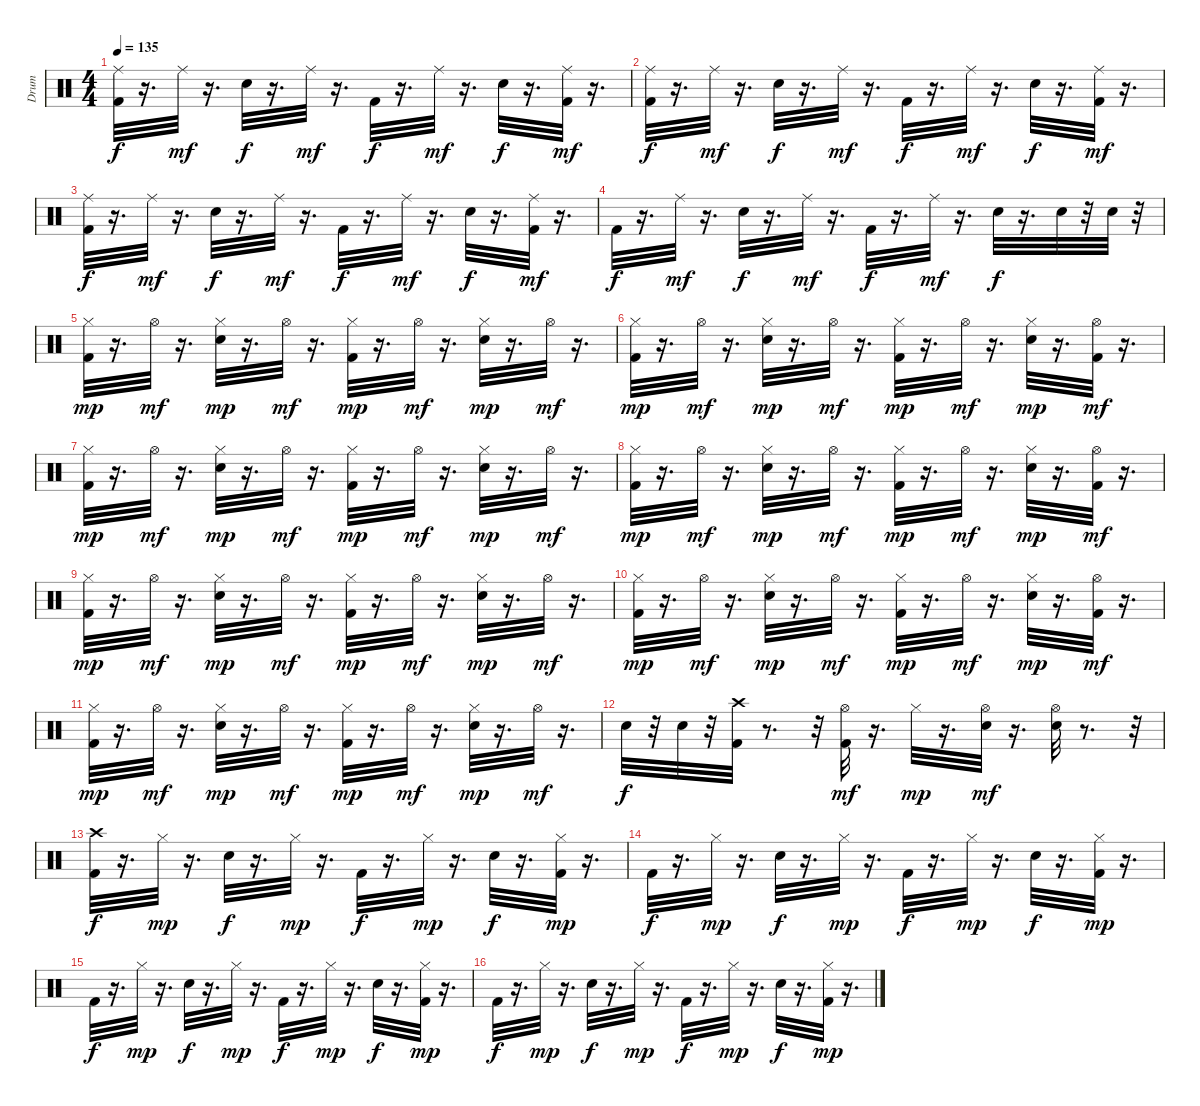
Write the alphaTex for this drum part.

\track ("Drum" "Drum") {instrument percussion}
\staff {score}
\articulation defaults
\ts (4 4)
\tempo 135
\clef neutral
\ks c
("Ride (middle)" "Kick (hit) 2").32{dy f} r.16{d} "Ride (middle)".32{dy mf} r.16{d} "Electric Snare (hit)".32{dy f} r.16{d} "Ride (middle)".32{dy mf} r.16{d} "Kick (hit) 2".32{dy f} r.16{d} "Ride (middle)".32{dy mf} r.16{d} "Electric Snare (hit)".32{dy f} r.16{d} ("Ride (middle)" "Kick (hit) 2").32{dy mf} r.16{d} |
("Ride (middle)" "Kick (hit) 2").32{dy f} r.16{d} "Ride (middle)".32{dy mf} r.16{d} "Electric Snare (hit)".32{dy f} r.16{d} "Ride (middle)".32{dy mf} r.16{d} "Kick (hit) 2".32{dy f} r.16{d} "Ride (middle)".32{dy mf} r.16{d} "Electric Snare (hit)".32{dy f} r.16{d} ("Ride (middle)" "Kick (hit) 2").32{dy mf} r.16{d} |
("Ride (middle)" "Kick (hit) 2").32{dy f} r.16{d} "Ride (middle)".32{dy mf} r.16{d} "Electric Snare (hit)".32{dy f} r.16{d} "Ride (middle)".32{dy mf} r.16{d} "Kick (hit) 2".32{dy f} r.16{d} "Ride (middle)".32{dy mf} r.16{d} "Electric Snare (hit)".32{dy f} r.16{d} ("Ride (middle)" "Kick (hit) 2").32{dy mf} r.16{d} |
"Kick (hit) 2".32{dy f} r.16{d} "Ride (middle)".32{dy mf} r.16{d} "Electric Snare (hit)".32{dy f} r.16{d} "Ride (middle)".32{dy mf} r.16{d} "Kick (hit) 2".32{dy f} r.16{d} "Ride (middle)".32{dy mf} r.16{d} "Electric Snare (hit)".32{dy f} r.16{d} "Electric Snare (hit)".32 r.32 "Electric Snare (hit)".32 r.32 |
("Hi-Hat (closed)" "Kick (hit) 2").32{dy mp} r.16{d} "Hi-Hat (open)".32{dy mf} r.16{d} ("Hi-Hat (closed)" "Electric Snare (hit)").32{dy mp} r.16{d} "Hi-Hat (open)".32{dy mf} r.16{d} ("Hi-Hat (closed)" "Kick (hit) 2").32{dy mp} r.16{d} "Hi-Hat (open)".32{dy mf} r.16{d} ("Hi-Hat (closed)" "Electric Snare (hit)").32{dy mp} r.16{d} "Hi-Hat (open)".32{dy mf} r.16{d} |
("Hi-Hat (closed)" "Kick (hit) 2").32{dy mp} r.16{d} "Hi-Hat (open)".32{dy mf} r.16{d} ("Hi-Hat (closed)" "Electric Snare (hit)").32{dy mp} r.16{d} "Hi-Hat (open)".32{dy mf} r.16{d} ("Hi-Hat (closed)" "Kick (hit) 2").32{dy mp} r.16{d} "Hi-Hat (open)".32{dy mf} r.16{d} ("Hi-Hat (closed)" "Electric Snare (hit)").32{dy mp} r.16{d} ("Hi-Hat (open)" "Kick (hit) 2").32{dy mf} r.16{d} |
("Hi-Hat (closed)" "Kick (hit) 2").32{dy mp} r.16{d} "Hi-Hat (open)".32{dy mf} r.16{d} ("Hi-Hat (closed)" "Electric Snare (hit)").32{dy mp} r.16{d} "Hi-Hat (open)".32{dy mf} r.16{d} ("Hi-Hat (closed)" "Kick (hit) 2").32{dy mp} r.16{d} "Hi-Hat (open)".32{dy mf} r.16{d} ("Hi-Hat (closed)" "Electric Snare (hit)").32{dy mp} r.16{d} "Hi-Hat (open)".32{dy mf} r.16{d} |
("Hi-Hat (closed)" "Kick (hit) 2").32{dy mp} r.16{d} "Hi-Hat (open)".32{dy mf} r.16{d} ("Hi-Hat (closed)" "Electric Snare (hit)").32{dy mp} r.16{d} "Hi-Hat (open)".32{dy mf} r.16{d} ("Hi-Hat (closed)" "Kick (hit) 2").32{dy mp} r.16{d} "Hi-Hat (open)".32{dy mf} r.16{d} ("Hi-Hat (closed)" "Electric Snare (hit)").32{dy mp} r.16{d} ("Hi-Hat (open)" "Kick (hit) 2").32{dy mf} r.16{d} |
("Hi-Hat (closed)" "Kick (hit) 2").32{dy mp} r.16{d} "Hi-Hat (open)".32{dy mf} r.16{d} ("Hi-Hat (closed)" "Electric Snare (hit)").32{dy mp} r.16{d} "Hi-Hat (open)".32{dy mf} r.16{d} ("Hi-Hat (closed)" "Kick (hit) 2").32{dy mp} r.16{d} "Hi-Hat (open)".32{dy mf} r.16{d} ("Hi-Hat (closed)" "Electric Snare (hit)").32{dy mp} r.16{d} "Hi-Hat (open)".32{dy mf} r.16{d} |
("Hi-Hat (closed)" "Kick (hit) 2").32{dy mp} r.16{d} "Hi-Hat (open)".32{dy mf} r.16{d} ("Hi-Hat (closed)" "Electric Snare (hit)").32{dy mp} r.16{d} "Hi-Hat (open)".32{dy mf} r.16{d} ("Hi-Hat (closed)" "Kick (hit) 2").32{dy mp} r.16{d} "Hi-Hat (open)".32{dy mf} r.16{d} ("Hi-Hat (closed)" "Electric Snare (hit)").32{dy mp} r.16{d} ("Hi-Hat (open)" "Kick (hit) 2").32{dy mf} r.16{d} |
("Hi-Hat (closed)" "Kick (hit) 2").32{dy mp} r.16{d} "Hi-Hat (open)".32{dy mf} r.16{d} ("Hi-Hat (closed)" "Electric Snare (hit)").32{dy mp} r.16{d} "Hi-Hat (open)".32{dy mf} r.16{d} ("Hi-Hat (closed)" "Kick (hit) 2").32{dy mp} r.16{d} "Hi-Hat (open)".32{dy mf} r.16{d} ("Hi-Hat (closed)" "Electric Snare (hit)").32{dy mp} r.16{d} "Hi-Hat (open)".32{dy mf} r.16{d} |
"Electric Snare (hit)".32{dy f} r.32 "Electric Snare (hit)".32 r.32 ("Crash high (hit)" "Kick (hit) 2").32 r.8{d} r.32 ("Hi-Hat (open)" "Kick (hit) 2").32{dy mf} r.16{d} "Hi-Hat (closed)".32{dy mp} r.16{d} ("Hi-Hat (open)" "Electric Snare (hit)").32{dy mf} r.16{d} ("Hi-Hat (open)" "Electric Snare (hit)").32 r.8{d} r.32 |
("Kick (hit) 2" "Crash high (hit)").32{dy f} r.16{d} "Hi-Hat (closed)".32{dy mp} r.16{d} "Electric Snare (hit)".32{dy f} r.16{d} "Hi-Hat (closed)".32{dy mp} r.16{d} "Kick (hit) 2".32{dy f} r.16{d} "Hi-Hat (closed)".32{dy mp} r.16{d} "Electric Snare (hit)".32{dy f} r.16{d} ("Kick (hit) 2" "Hi-Hat (closed)").32{dy mp} r.16{d} |
"Kick (hit) 2".32{dy f} r.16{d} "Hi-Hat (closed)".32{dy mp} r.16{d} "Electric Snare (hit)".32{dy f} r.16{d} "Hi-Hat (closed)".32{dy mp} r.16{d} "Kick (hit) 2".32{dy f} r.16{d} "Hi-Hat (closed)".32{dy mp} r.16{d} "Electric Snare (hit)".32{dy f} r.16{d} ("Hi-Hat (closed)" "Kick (hit) 2").32{dy mp} r.16{d} |
"Kick (hit) 2".32{dy f} r.16{d} "Hi-Hat (closed)".32{dy mp} r.16{d} "Electric Snare (hit)".32{dy f} r.16{d} "Hi-Hat (closed)".32{dy mp} r.16{d} "Kick (hit) 2".32{dy f} r.16{d} "Hi-Hat (closed)".32{dy mp} r.16{d} "Electric Snare (hit)".32{dy f} r.16{d} ("Hi-Hat (closed)" "Kick (hit) 2").32{dy mp} r.16{d} |
"Kick (hit) 2".32{dy f} r.16{d} "Hi-Hat (closed)".32{dy mp} r.16{d} "Electric Snare (hit)".32{dy f} r.16{d} "Hi-Hat (closed)".32{dy mp} r.16{d} "Kick (hit) 2".32{dy f} r.16{d} "Hi-Hat (closed)".32{dy mp} r.16{d} "Electric Snare (hit)".32{dy f} r.16{d} ("Hi-Hat (closed)" "Kick (hit) 2").32{dy mp} r.16{d}
